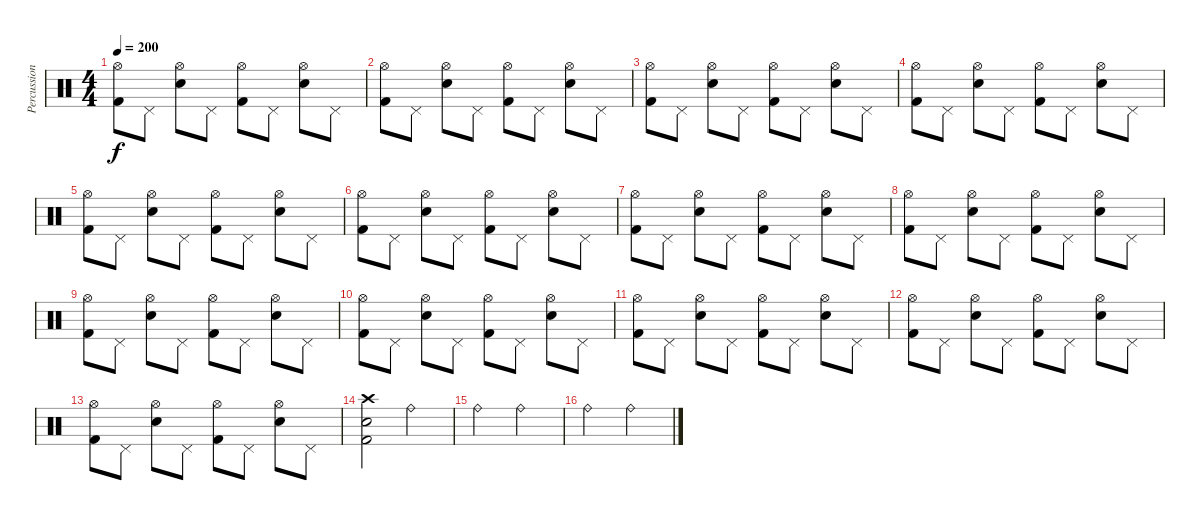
\track ("Percussion" "Percussion") {instrument percussion}
\staff {score}
\articulation defaults
\ts (4 4)
\tempo 200
\clef neutral
\ks c
("Hi-Hat (open)" "Kick (hit) 2").8{dy f} "Pedal Hi-Hat (hit)".8 ("Hi-Hat (open)" "Electric Snare (hit)").8 "Pedal Hi-Hat (hit)".8 ("Hi-Hat (open)" "Kick (hit) 2").8 "Pedal Hi-Hat (hit)".8 ("Hi-Hat (open)" "Electric Snare (hit)").8 "Pedal Hi-Hat (hit)".8 |
("Hi-Hat (open)" "Kick (hit) 2").8 "Pedal Hi-Hat (hit)".8 ("Hi-Hat (open)" "Electric Snare (hit)").8 "Pedal Hi-Hat (hit)".8 ("Hi-Hat (open)" "Kick (hit) 2").8 "Pedal Hi-Hat (hit)".8 ("Hi-Hat (open)" "Electric Snare (hit)").8 "Pedal Hi-Hat (hit)".8 |
("Hi-Hat (open)" "Kick (hit) 2").8 "Pedal Hi-Hat (hit)".8 ("Hi-Hat (open)" "Electric Snare (hit)").8 "Pedal Hi-Hat (hit)".8 ("Hi-Hat (open)" "Kick (hit) 2").8 "Pedal Hi-Hat (hit)".8 ("Hi-Hat (open)" "Electric Snare (hit)").8 "Pedal Hi-Hat (hit)".8 |
("Hi-Hat (open)" "Kick (hit) 2").8 "Pedal Hi-Hat (hit)".8 ("Hi-Hat (open)" "Electric Snare (hit)").8 "Pedal Hi-Hat (hit)".8 ("Hi-Hat (open)" "Kick (hit) 2").8 "Pedal Hi-Hat (hit)".8 ("Hi-Hat (open)" "Electric Snare (hit)").8 "Pedal Hi-Hat (hit)".8 |
("Hi-Hat (open)" "Kick (hit) 2").8 "Pedal Hi-Hat (hit)".8 ("Hi-Hat (open)" "Electric Snare (hit)").8 "Pedal Hi-Hat (hit)".8 ("Hi-Hat (open)" "Kick (hit) 2").8 "Pedal Hi-Hat (hit)".8 ("Hi-Hat (open)" "Electric Snare (hit)").8 "Pedal Hi-Hat (hit)".8 |
("Hi-Hat (open)" "Kick (hit) 2").8 "Pedal Hi-Hat (hit)".8 ("Hi-Hat (open)" "Electric Snare (hit)").8 "Pedal Hi-Hat (hit)".8 ("Hi-Hat (open)" "Kick (hit) 2").8 "Pedal Hi-Hat (hit)".8 ("Hi-Hat (open)" "Electric Snare (hit)").8 "Pedal Hi-Hat (hit)".8 |
("Hi-Hat (open)" "Kick (hit) 2").8 "Pedal Hi-Hat (hit)".8 ("Hi-Hat (open)" "Electric Snare (hit)").8 "Pedal Hi-Hat (hit)".8 ("Hi-Hat (open)" "Kick (hit) 2").8 "Pedal Hi-Hat (hit)".8 ("Hi-Hat (open)" "Electric Snare (hit)").8 "Pedal Hi-Hat (hit)".8 |
("Hi-Hat (open)" "Kick (hit) 2").8 "Pedal Hi-Hat (hit)".8 ("Hi-Hat (open)" "Electric Snare (hit)").8 "Pedal Hi-Hat (hit)".8 ("Hi-Hat (open)" "Kick (hit) 2").8 "Pedal Hi-Hat (hit)".8 ("Hi-Hat (open)" "Electric Snare (hit)").8 "Pedal Hi-Hat (hit)".8 |
("Hi-Hat (open)" "Kick (hit) 2").8 "Pedal Hi-Hat (hit)".8 ("Hi-Hat (open)" "Electric Snare (hit)").8 "Pedal Hi-Hat (hit)".8 ("Hi-Hat (open)" "Kick (hit) 2").8 "Pedal Hi-Hat (hit)".8 ("Hi-Hat (open)" "Electric Snare (hit)").8 "Pedal Hi-Hat (hit)".8 |
("Hi-Hat (open)" "Kick (hit) 2").8 "Pedal Hi-Hat (hit)".8 ("Hi-Hat (open)" "Electric Snare (hit)").8 "Pedal Hi-Hat (hit)".8 ("Hi-Hat (open)" "Kick (hit) 2").8 "Pedal Hi-Hat (hit)".8 ("Hi-Hat (open)" "Electric Snare (hit)").8 "Pedal Hi-Hat (hit)".8 |
("Hi-Hat (open)" "Kick (hit) 2").8 "Pedal Hi-Hat (hit)".8 ("Hi-Hat (open)" "Electric Snare (hit)").8 "Pedal Hi-Hat (hit)".8 ("Hi-Hat (open)" "Kick (hit) 2").8 "Pedal Hi-Hat (hit)".8 ("Hi-Hat (open)" "Electric Snare (hit)").8 "Pedal Hi-Hat (hit)".8 |
("Hi-Hat (open)" "Kick (hit) 2").8 "Pedal Hi-Hat (hit)".8 ("Hi-Hat (open)" "Electric Snare (hit)").8 "Pedal Hi-Hat (hit)".8 ("Hi-Hat (open)" "Kick (hit) 2").8 "Pedal Hi-Hat (hit)".8 ("Hi-Hat (open)" "Electric Snare (hit)").8 "Pedal Hi-Hat (hit)".8 |
("Hi-Hat (open)" "Kick (hit) 2").8 "Pedal Hi-Hat (hit)".8 ("Hi-Hat (open)" "Electric Snare (hit)").8 "Pedal Hi-Hat (hit)".8 ("Hi-Hat (open)" "Kick (hit) 2").8 "Pedal Hi-Hat (hit)".8 ("Hi-Hat (open)" "Electric Snare (hit)").8 "Pedal Hi-Hat (hit)".8 |
("Crash high (hit)" "Electric Snare (hit)" "Kick (hit) 2").2 "Ride (bell)".2 |
"Ride (bell)".2 "Ride (bell)".2 |
"Ride (bell)".2 "Ride (bell)".2
